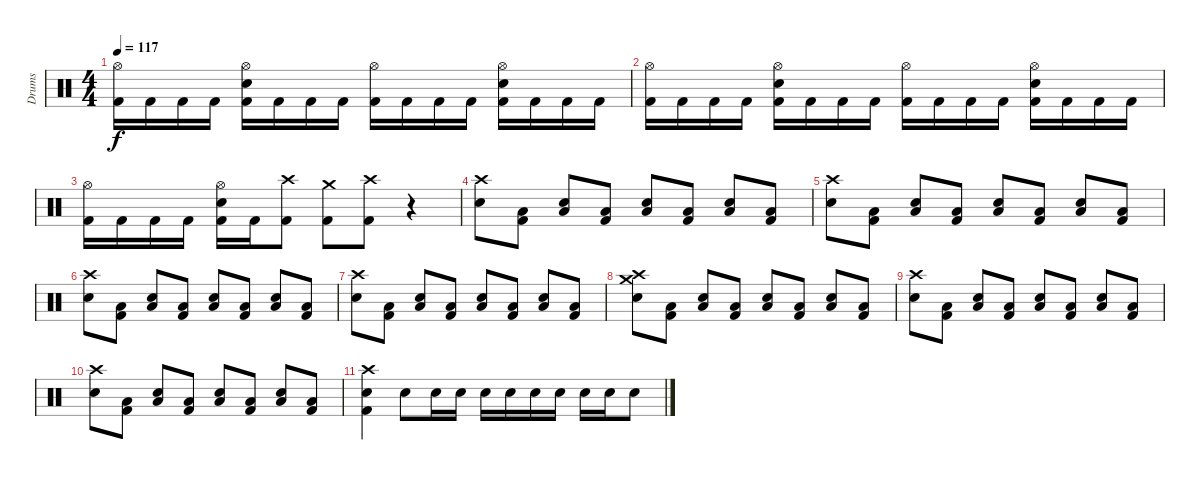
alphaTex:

\track ("Drums" "Drums") {instrument percussion}
\staff {score}
\articulation defaults
\ts (4 4)
\tempo 117
\clef neutral
\ks c
("Hi-Hat (open)" "Kick (hit) 2").16{dy f} "Kick (hit) 2".16 "Kick (hit) 2".16 "Kick (hit) 2".16 ("Hi-Hat (open)" "Snare (hit) 2" "Kick (hit) 2").16 "Kick (hit) 2".16 "Kick (hit) 2".16 "Kick (hit) 2".16 ("Hi-Hat (open)" "Kick (hit) 2").16 "Kick (hit) 2".16 "Kick (hit) 2".16 "Kick (hit) 2".16 ("Hi-Hat (open)" "Snare (hit) 2" "Kick (hit) 2").16 "Kick (hit) 2".16 "Kick (hit) 2".16 "Kick (hit) 2".16 |
("Hi-Hat (open)" "Kick (hit) 2").16 "Kick (hit) 2".16 "Kick (hit) 2".16 "Kick (hit) 2".16 ("Hi-Hat (open)" "Snare (hit) 2" "Kick (hit) 2").16 "Kick (hit) 2".16 "Kick (hit) 2".16 "Kick (hit) 2".16 ("Hi-Hat (open)" "Kick (hit) 2").16 "Kick (hit) 2".16 "Kick (hit) 2".16 "Kick (hit) 2".16 ("Hi-Hat (open)" "Snare (hit) 2" "Kick (hit) 2").16 "Kick (hit) 2".16 "Kick (hit) 2".16 "Kick (hit) 2".16 |
("Hi-Hat (open)" "Kick (hit) 2").16 "Kick (hit) 2".16 "Kick (hit) 2".16 "Kick (hit) 2".16 ("Hi-Hat (open)" "Snare (hit) 2" "Kick (hit) 2").16 "Kick (hit) 2".16 ("Crash high (hit)" "Kick (hit) 2").8 ("Crash medium (hit)" "Kick (hit) 2").8 ("Crash high (hit)" "Kick (hit) 2").8 r.4 |
("Crash high (hit)" "Snare (hit) 2").8 ("Low Floor Tom (hit)" "Kick (hit) 2").8 ("Low Floor Tom (hit)" "Snare (hit) 2").8 ("Low Floor Tom (hit)" "Kick (hit) 2").8 ("Low Floor Tom (hit)" "Snare (hit) 2").8 ("Low Floor Tom (hit)" "Kick (hit) 2").8 ("Low Floor Tom (hit)" "Snare (hit) 2").8 ("Low Floor Tom (hit)" "Kick (hit) 2").8 |
("Crash high (hit)" "Snare (hit) 2").8 ("Low Floor Tom (hit)" "Kick (hit) 2").8 ("Low Floor Tom (hit)" "Snare (hit) 2").8 ("Low Floor Tom (hit)" "Kick (hit) 2").8 ("Low Floor Tom (hit)" "Snare (hit) 2").8 ("Low Floor Tom (hit)" "Kick (hit) 2").8 ("Low Floor Tom (hit)" "Snare (hit) 2").8 ("Low Floor Tom (hit)" "Kick (hit) 2").8 |
("Crash high (hit)" "Snare (hit) 2").8 ("Low Floor Tom (hit)" "Kick (hit) 2").8 ("Low Floor Tom (hit)" "Snare (hit) 2").8 ("Low Floor Tom (hit)" "Kick (hit) 2").8 ("Low Floor Tom (hit)" "Snare (hit) 2").8 ("Low Floor Tom (hit)" "Kick (hit) 2").8 ("Low Floor Tom (hit)" "Snare (hit) 2").8 ("Low Floor Tom (hit)" "Kick (hit) 2").8 |
("Crash high (hit)" "Snare (hit) 2").8 ("Low Floor Tom (hit)" "Kick (hit) 2").8 ("Low Floor Tom (hit)" "Snare (hit) 2").8 ("Low Floor Tom (hit)" "Kick (hit) 2").8 ("Low Floor Tom (hit)" "Snare (hit) 2").8 ("Low Floor Tom (hit)" "Kick (hit) 2").8 ("Low Floor Tom (hit)" "Snare (hit) 2").8 ("Low Floor Tom (hit)" "Kick (hit) 2").8 |
("Crash high (hit)" "Crash medium (hit)" "Snare (hit) 2").8 ("Low Floor Tom (hit)" "Kick (hit) 2").8 ("Low Floor Tom (hit)" "Snare (hit) 2").8 ("Low Floor Tom (hit)" "Kick (hit) 2").8 ("Low Floor Tom (hit)" "Snare (hit) 2").8 ("Low Floor Tom (hit)" "Kick (hit) 2").8 ("Low Floor Tom (hit)" "Snare (hit) 2").8 ("Low Floor Tom (hit)" "Kick (hit) 2").8 |
("Crash high (hit)" "Snare (hit) 2").8 ("Low Floor Tom (hit)" "Kick (hit) 2").8 ("Low Floor Tom (hit)" "Snare (hit) 2").8 ("Low Floor Tom (hit)" "Kick (hit) 2").8 ("Low Floor Tom (hit)" "Snare (hit) 2").8 ("Low Floor Tom (hit)" "Kick (hit) 2").8 ("Low Floor Tom (hit)" "Snare (hit) 2").8 ("Low Floor Tom (hit)" "Kick (hit) 2").8 |
("Crash high (hit)" "Snare (hit) 2").8 ("Low Floor Tom (hit)" "Kick (hit) 2").8 ("Low Floor Tom (hit)" "Snare (hit) 2").8 ("Low Floor Tom (hit)" "Kick (hit) 2").8 ("Low Floor Tom (hit)" "Snare (hit) 2").8 ("Low Floor Tom (hit)" "Kick (hit) 2").8 ("Low Floor Tom (hit)" "Snare (hit) 2").8 ("Low Floor Tom (hit)" "Kick (hit) 2").8 |
("Crash high (hit)" "Snare (hit) 2" "Kick (hit) 2").4 "Snare (hit) 2".8 "Snare (hit) 2".16 "Snare (hit) 2".16 "Snare (hit) 2".16 "Snare (hit) 2".16 "Snare (hit) 2".16 "Snare (hit) 2".16 "Snare (hit) 2".16 "Snare (hit) 2".16 "Snare (hit) 2".8
